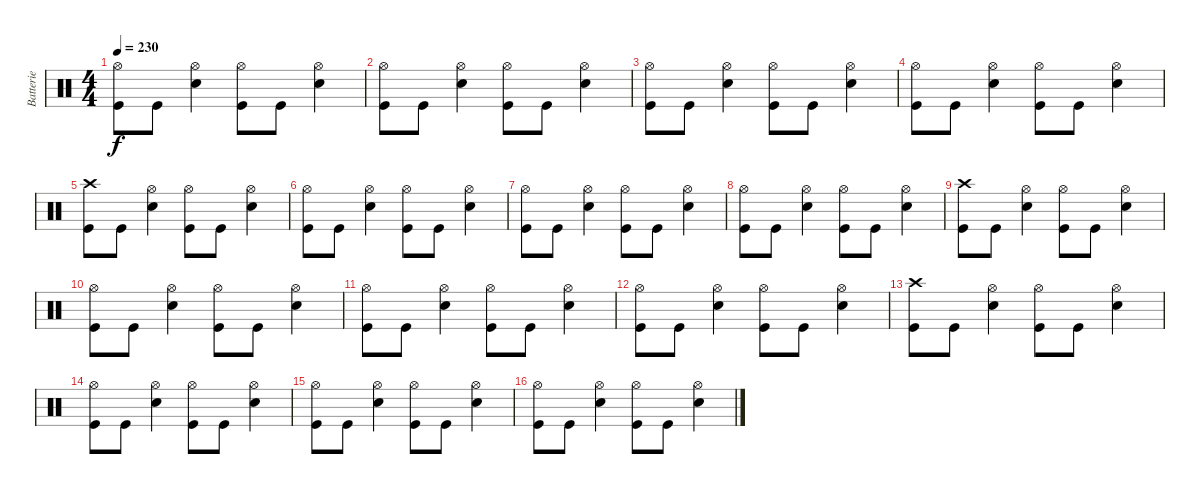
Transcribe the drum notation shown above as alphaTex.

\track ("Batterie" "Batterie") {instrument percussion}
\staff {score}
\articulation defaults
\ts (4 4)
\tempo 230
\clef neutral
\ks c
("Hi-Hat (open)" "Kick (hit)").8{dy f} "Kick (hit)".8 ("Hi-Hat (open)" "Snare (hit) 2").4 ("Hi-Hat (open)" "Kick (hit)").8 "Kick (hit)".8 ("Hi-Hat (open)" "Snare (hit) 2").4 |
("Hi-Hat (open)" "Kick (hit)").8 "Kick (hit)".8 ("Hi-Hat (open)" "Snare (hit) 2").4 ("Hi-Hat (open)" "Kick (hit)").8 "Kick (hit)".8 ("Hi-Hat (open)" "Snare (hit) 2").4 |
("Hi-Hat (open)" "Kick (hit)").8 "Kick (hit)".8 ("Hi-Hat (open)" "Snare (hit) 2").4 ("Hi-Hat (open)" "Kick (hit)").8 "Kick (hit)".8 ("Hi-Hat (open)" "Snare (hit) 2").4 |
("Hi-Hat (open)" "Kick (hit)").8 "Kick (hit)".8 ("Hi-Hat (open)" "Snare (hit) 2").4 ("Hi-Hat (open)" "Kick (hit)").8 "Kick (hit)".8 ("Hi-Hat (open)" "Snare (hit) 2").4 |
("Crash high (hit)" "Kick (hit)").8 "Kick (hit)".8 ("Hi-Hat (open)" "Snare (hit) 2").4 ("Hi-Hat (open)" "Kick (hit)").8 "Kick (hit)".8 ("Hi-Hat (open)" "Snare (hit) 2").4 |
("Hi-Hat (open)" "Kick (hit)").8 "Kick (hit)".8 ("Hi-Hat (open)" "Snare (hit) 2").4 ("Hi-Hat (open)" "Kick (hit)").8 "Kick (hit)".8 ("Hi-Hat (open)" "Snare (hit) 2").4 |
("Hi-Hat (open)" "Kick (hit)").8 "Kick (hit)".8 ("Hi-Hat (open)" "Snare (hit) 2").4 ("Hi-Hat (open)" "Kick (hit)").8 "Kick (hit)".8 ("Hi-Hat (open)" "Snare (hit) 2").4 |
("Hi-Hat (open)" "Kick (hit)").8 "Kick (hit)".8 ("Hi-Hat (open)" "Snare (hit) 2").4 ("Hi-Hat (open)" "Kick (hit)").8 "Kick (hit)".8 ("Hi-Hat (open)" "Snare (hit) 2").4 |
("Crash high (hit)" "Kick (hit)").8 "Kick (hit)".8 ("Hi-Hat (open)" "Snare (hit) 2").4 ("Hi-Hat (open)" "Kick (hit)").8 "Kick (hit)".8 ("Hi-Hat (open)" "Snare (hit) 2").4 |
("Hi-Hat (open)" "Kick (hit)").8 "Kick (hit)".8 ("Hi-Hat (open)" "Snare (hit) 2").4 ("Hi-Hat (open)" "Kick (hit)").8 "Kick (hit)".8 ("Hi-Hat (open)" "Snare (hit) 2").4 |
("Hi-Hat (open)" "Kick (hit)").8 "Kick (hit)".8 ("Hi-Hat (open)" "Snare (hit) 2").4 ("Hi-Hat (open)" "Kick (hit)").8 "Kick (hit)".8 ("Hi-Hat (open)" "Snare (hit) 2").4 |
("Hi-Hat (open)" "Kick (hit)").8 "Kick (hit)".8 ("Hi-Hat (open)" "Snare (hit) 2").4 ("Hi-Hat (open)" "Kick (hit)").8 "Kick (hit)".8 ("Hi-Hat (open)" "Snare (hit) 2").4 |
("Crash high (hit)" "Kick (hit)").8 "Kick (hit)".8 ("Hi-Hat (open)" "Snare (hit) 2").4 ("Hi-Hat (open)" "Kick (hit)").8 "Kick (hit)".8 ("Hi-Hat (open)" "Snare (hit) 2").4 |
("Hi-Hat (open)" "Kick (hit)").8 "Kick (hit)".8 ("Hi-Hat (open)" "Snare (hit) 2").4 ("Hi-Hat (open)" "Kick (hit)").8 "Kick (hit)".8 ("Hi-Hat (open)" "Snare (hit) 2").4 |
("Hi-Hat (open)" "Kick (hit)").8 "Kick (hit)".8 ("Hi-Hat (open)" "Snare (hit) 2").4 ("Hi-Hat (open)" "Kick (hit)").8 "Kick (hit)".8 ("Hi-Hat (open)" "Snare (hit) 2").4 |
("Hi-Hat (open)" "Kick (hit)").8 "Kick (hit)".8 ("Hi-Hat (open)" "Snare (hit) 2").4 ("Hi-Hat (open)" "Kick (hit)").8 "Kick (hit)".8 ("Hi-Hat (open)" "Snare (hit) 2").4
